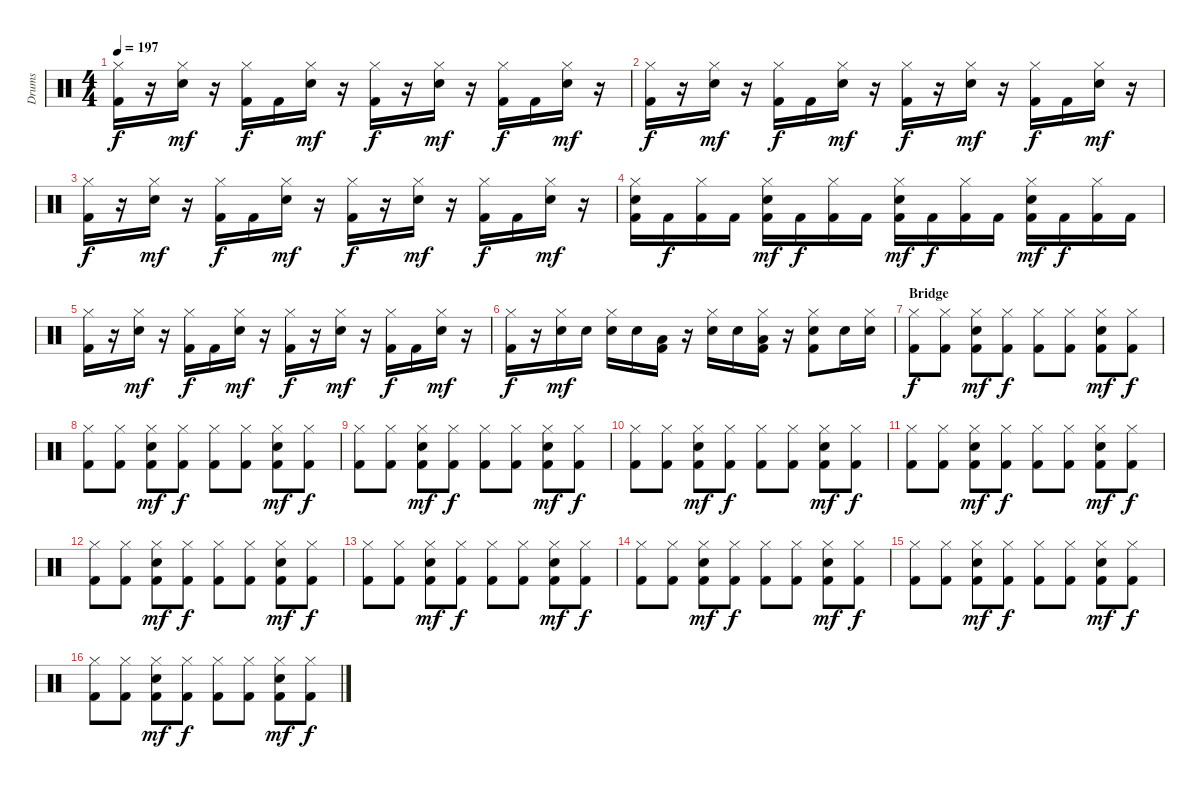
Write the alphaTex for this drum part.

\track ("Drums" "Drums") {instrument percussion}
\staff {score}
\articulation defaults
\ts (4 4)
\tempo 197
\clef neutral
\ks c
("Kick (hit) 2" "Hi-Hat (closed)").16{dy f} r.16 ("Snare (hit) 2" "Hi-Hat (closed)").16{dy mf} r.16 ("Kick (hit) 2" "Hi-Hat (closed)").16{dy f} "Kick (hit) 2".16 ("Snare (hit) 2" "Hi-Hat (closed)").16{dy mf} r.16 ("Kick (hit) 2" "Hi-Hat (closed)").16{dy f} r.16 ("Snare (hit) 2" "Hi-Hat (closed)").16{dy mf} r.16 ("Kick (hit) 2" "Hi-Hat (closed)").16{dy f} "Kick (hit) 2".16 ("Snare (hit) 2" "Hi-Hat (closed)").16{dy mf} r.16 |
("Kick (hit) 2" "Hi-Hat (closed)").16{dy f} r.16 ("Snare (hit) 2" "Hi-Hat (closed)").16{dy mf} r.16 ("Kick (hit) 2" "Hi-Hat (closed)").16{dy f} "Kick (hit) 2".16 ("Snare (hit) 2" "Hi-Hat (closed)").16{dy mf} r.16 ("Kick (hit) 2" "Hi-Hat (closed)").16{dy f} r.16 ("Snare (hit) 2" "Hi-Hat (closed)").16{dy mf} r.16 ("Kick (hit) 2" "Hi-Hat (closed)").16{dy f} "Kick (hit) 2".16 ("Snare (hit) 2" "Hi-Hat (closed)").16{dy mf} r.16 |
("Kick (hit) 2" "Hi-Hat (closed)").16{dy f} r.16 ("Snare (hit) 2" "Hi-Hat (closed)").16{dy mf} r.16 ("Kick (hit) 2" "Hi-Hat (closed)").16{dy f} "Kick (hit) 2".16 ("Snare (hit) 2" "Hi-Hat (closed)").16{dy mf} r.16 ("Kick (hit) 2" "Hi-Hat (closed)").16{dy f} r.16 ("Snare (hit) 2" "Hi-Hat (closed)").16{dy mf} r.16 ("Kick (hit) 2" "Hi-Hat (closed)").16{dy f} "Kick (hit) 2".16 ("Snare (hit) 2" "Hi-Hat (closed)").16{dy mf} r.16 |
("Kick (hit) 2" "Snare (hit) 2" "Hi-Hat (closed)").16 "Kick (hit) 2".16{dy f} ("Kick (hit) 2" "Hi-Hat (closed)").16 "Kick (hit) 2".16 ("Kick (hit) 2" "Snare (hit) 2" "Hi-Hat (closed)").16{dy mf} "Kick (hit) 2".16{dy f} ("Kick (hit) 2" "Hi-Hat (closed)").16 "Kick (hit) 2".16 ("Kick (hit) 2" "Snare (hit) 2" "Hi-Hat (closed)").16{dy mf} "Kick (hit) 2".16{dy f} ("Kick (hit) 2" "Hi-Hat (closed)").16 "Kick (hit) 2".16 ("Kick (hit) 2" "Snare (hit) 2" "Hi-Hat (closed)").16{dy mf} "Kick (hit) 2".16{dy f} ("Kick (hit) 2" "Hi-Hat (closed)").16 "Kick (hit) 2".16 |
("Kick (hit) 2" "Hi-Hat (closed)").16 r.16 ("Snare (hit) 2" "Hi-Hat (closed)").16{dy mf} r.16 ("Kick (hit) 2" "Hi-Hat (closed)").16{dy f} "Kick (hit) 2".16 ("Snare (hit) 2" "Hi-Hat (closed)").16{dy mf} r.16 ("Kick (hit) 2" "Hi-Hat (closed)").16{dy f} r.16 ("Snare (hit) 2" "Hi-Hat (closed)").16{dy mf} r.16 ("Kick (hit) 2" "Hi-Hat (closed)").16{dy f} "Kick (hit) 2".16 ("Snare (hit) 2" "Hi-Hat (closed)").16{dy mf} r.16 |
("Kick (hit) 2" "Hi-Hat (closed)").16{dy f} r.16 ("Snare (hit) 2" "Hi-Hat (closed)").16{dy mf} "Snare (hit) 2".16 ("Snare (hit) 2" "Hi-Hat (closed)").16 "Snare (hit) 2".16 ("Kick (hit) 2" "Low Floor Tom (hit)").16 r.16 ("Snare (hit) 2" "Hi-Hat (closed)").16 "Snare (hit) 2".16 ("Kick (hit) 2" "Low Floor Tom (hit)" "Hi-Hat (closed)").16 r.16 ("Kick (hit) 2" "Snare (hit) 2" "Hi-Hat (closed)").8 "Snare (hit) 2".16 ("Snare (hit) 2" "Hi-Hat (closed)").16 |
\section ("" "Bridge")
("Kick (hit) 2" "Hi-Hat (closed)").8{dy f} ("Kick (hit) 2" "Hi-Hat (closed)").8 ("Kick (hit) 2" "Snare (hit) 2" "Hi-Hat (closed)").8{dy mf} ("Kick (hit) 2" "Hi-Hat (closed)").8{dy f} ("Kick (hit) 2" "Hi-Hat (closed)").8 ("Kick (hit) 2" "Hi-Hat (closed)").8 ("Kick (hit) 2" "Snare (hit) 2" "Hi-Hat (closed)").8{dy mf} ("Kick (hit) 2" "Hi-Hat (closed)").8{dy f} |
("Kick (hit) 2" "Hi-Hat (closed)").8 ("Kick (hit) 2" "Hi-Hat (closed)").8 ("Kick (hit) 2" "Snare (hit) 2" "Hi-Hat (closed)").8{dy mf} ("Kick (hit) 2" "Hi-Hat (closed)").8{dy f} ("Kick (hit) 2" "Hi-Hat (closed)").8 ("Kick (hit) 2" "Hi-Hat (closed)").8 ("Kick (hit) 2" "Snare (hit) 2" "Hi-Hat (closed)").8{dy mf} ("Kick (hit) 2" "Hi-Hat (closed)").8{dy f} |
("Kick (hit) 2" "Hi-Hat (closed)").8 ("Kick (hit) 2" "Hi-Hat (closed)").8 ("Kick (hit) 2" "Snare (hit) 2" "Hi-Hat (closed)").8{dy mf} ("Kick (hit) 2" "Hi-Hat (closed)").8{dy f} ("Kick (hit) 2" "Hi-Hat (closed)").8 ("Kick (hit) 2" "Hi-Hat (closed)").8 ("Kick (hit) 2" "Snare (hit) 2" "Hi-Hat (closed)").8{dy mf} ("Kick (hit) 2" "Hi-Hat (closed)").8{dy f} |
("Kick (hit) 2" "Hi-Hat (closed)").8 ("Kick (hit) 2" "Hi-Hat (closed)").8 ("Kick (hit) 2" "Snare (hit) 2" "Hi-Hat (closed)").8{dy mf} ("Kick (hit) 2" "Hi-Hat (closed)").8{dy f} ("Kick (hit) 2" "Hi-Hat (closed)").8 ("Kick (hit) 2" "Hi-Hat (closed)").8 ("Kick (hit) 2" "Snare (hit) 2" "Hi-Hat (closed)").8{dy mf} ("Kick (hit) 2" "Hi-Hat (closed)").8{dy f} |
("Kick (hit) 2" "Hi-Hat (closed)").8 ("Kick (hit) 2" "Hi-Hat (closed)").8 ("Kick (hit) 2" "Snare (hit) 2" "Hi-Hat (closed)").8{dy mf} ("Kick (hit) 2" "Hi-Hat (closed)").8{dy f} ("Kick (hit) 2" "Hi-Hat (closed)").8 ("Kick (hit) 2" "Hi-Hat (closed)").8 ("Kick (hit) 2" "Snare (hit) 2" "Hi-Hat (closed)").8{dy mf} ("Kick (hit) 2" "Hi-Hat (closed)").8{dy f} |
("Kick (hit) 2" "Hi-Hat (closed)").8 ("Kick (hit) 2" "Hi-Hat (closed)").8 ("Kick (hit) 2" "Snare (hit) 2" "Hi-Hat (closed)").8{dy mf} ("Kick (hit) 2" "Hi-Hat (closed)").8{dy f} ("Kick (hit) 2" "Hi-Hat (closed)").8 ("Kick (hit) 2" "Hi-Hat (closed)").8 ("Kick (hit) 2" "Snare (hit) 2" "Hi-Hat (closed)").8{dy mf} ("Kick (hit) 2" "Hi-Hat (closed)").8{dy f} |
("Kick (hit) 2" "Hi-Hat (closed)").8 ("Kick (hit) 2" "Hi-Hat (closed)").8 ("Kick (hit) 2" "Snare (hit) 2" "Hi-Hat (closed)").8{dy mf} ("Kick (hit) 2" "Hi-Hat (closed)").8{dy f} ("Kick (hit) 2" "Hi-Hat (closed)").8 ("Kick (hit) 2" "Hi-Hat (closed)").8 ("Kick (hit) 2" "Snare (hit) 2" "Hi-Hat (closed)").8{dy mf} ("Kick (hit) 2" "Hi-Hat (closed)").8{dy f} |
("Kick (hit) 2" "Hi-Hat (closed)").8 ("Kick (hit) 2" "Hi-Hat (closed)").8 ("Kick (hit) 2" "Snare (hit) 2" "Hi-Hat (closed)").8{dy mf} ("Kick (hit) 2" "Hi-Hat (closed)").8{dy f} ("Kick (hit) 2" "Hi-Hat (closed)").8 ("Kick (hit) 2" "Hi-Hat (closed)").8 ("Kick (hit) 2" "Snare (hit) 2" "Hi-Hat (closed)").8{dy mf} ("Kick (hit) 2" "Hi-Hat (closed)").8{dy f} |
("Kick (hit) 2" "Hi-Hat (closed)").8 ("Kick (hit) 2" "Hi-Hat (closed)").8 ("Kick (hit) 2" "Snare (hit) 2" "Hi-Hat (closed)").8{dy mf} ("Kick (hit) 2" "Hi-Hat (closed)").8{dy f} ("Kick (hit) 2" "Hi-Hat (closed)").8 ("Kick (hit) 2" "Hi-Hat (closed)").8 ("Kick (hit) 2" "Snare (hit) 2" "Hi-Hat (closed)").8{dy mf} ("Kick (hit) 2" "Hi-Hat (closed)").8{dy f} |
("Kick (hit) 2" "Hi-Hat (closed)").8 ("Kick (hit) 2" "Hi-Hat (closed)").8 ("Kick (hit) 2" "Snare (hit) 2" "Hi-Hat (closed)").8{dy mf} ("Kick (hit) 2" "Hi-Hat (closed)").8{dy f} ("Kick (hit) 2" "Hi-Hat (closed)").8 ("Kick (hit) 2" "Hi-Hat (closed)").8 ("Kick (hit) 2" "Snare (hit) 2" "Hi-Hat (closed)").8{dy mf} ("Kick (hit) 2" "Hi-Hat (closed)").8{dy f}
